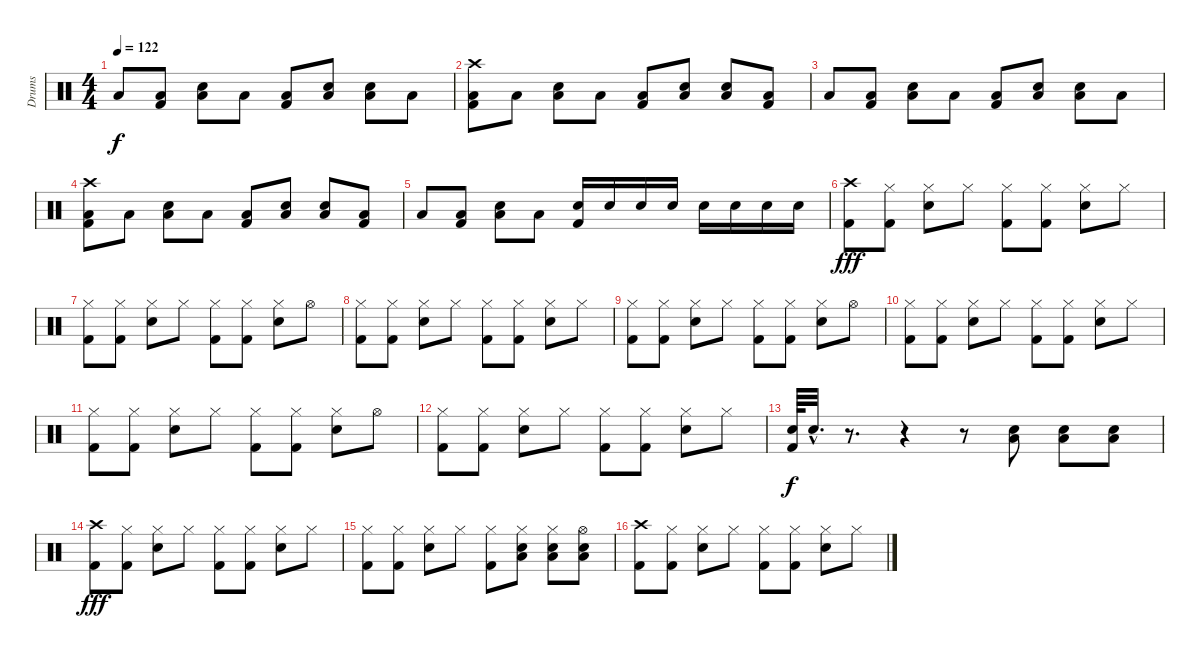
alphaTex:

\track ("Drums" "Drums") {instrument percussion}
\staff {score}
\articulation defaults
\ts (4 4)
\tempo 122
\clef neutral
\ks c "Low Floor Tom (hit)".8{dy f}
("Low Floor Tom (hit)" "Kick (hit) 2").8 ("Snare (hit) 2" "Low Floor Tom (hit)").8 "Low Floor Tom (hit)".8 ("Low Floor Tom (hit)" "Kick (hit) 2").8 ("Snare (hit) 2" "Low Floor Tom (hit)").8 ("Snare (hit) 2" "Low Floor Tom (hit)").8 "Low Floor Tom (hit)".8 |
("Crash high (hit)" "Low Floor Tom (hit)" "Kick (hit) 2").8 "Low Floor Tom (hit)".8 ("Snare (hit) 2" "Low Floor Tom (hit)").8 "Low Floor Tom (hit)".8 ("Low Floor Tom (hit)" "Kick (hit) 2").8 ("Snare (hit) 2" "Low Floor Tom (hit)").8 ("Snare (hit) 2" "Low Floor Tom (hit)").8 ("Low Floor Tom (hit)" "Kick (hit) 2").8 |
"Low Floor Tom (hit)".8 ("Low Floor Tom (hit)" "Kick (hit) 2").8 ("Snare (hit) 2" "Low Floor Tom (hit)").8 "Low Floor Tom (hit)".8 ("Low Floor Tom (hit)" "Kick (hit) 2").8 ("Snare (hit) 2" "Low Floor Tom (hit)").8 ("Snare (hit) 2" "Low Floor Tom (hit)").8 "Low Floor Tom (hit)".8 |
("Crash high (hit)" "Low Floor Tom (hit)" "Kick (hit) 2").8 "Low Floor Tom (hit)".8 ("Snare (hit) 2" "Low Floor Tom (hit)").8 "Low Floor Tom (hit)".8 ("Low Floor Tom (hit)" "Kick (hit) 2").8 ("Snare (hit) 2" "Low Floor Tom (hit)").8 ("Snare (hit) 2" "Low Floor Tom (hit)").8 ("Low Floor Tom (hit)" "Kick (hit) 2").8 |
"Low Floor Tom (hit)".8 ("Low Floor Tom (hit)" "Kick (hit) 2").8 ("Snare (hit) 2" "Low Floor Tom (hit)").8 "Low Floor Tom (hit)".8 ("Snare (hit) 2" "Kick (hit) 2").16 "Snare (hit) 2".16 "Snare (hit) 2".16 "Snare (hit) 2".16 "Snare (hit) 2".16 "Snare (hit) 2".16 "Snare (hit) 2".16 "Snare (hit) 2".16 |
("Crash high (hit)" "Kick (hit) 2").8{dy fff} ("Hi-Hat (closed)" "Kick (hit) 2").8 ("Hi-Hat (closed)" "Snare (hit) 2").8 "Hi-Hat (closed)".8 ("Hi-Hat (closed)" "Kick (hit) 2").8 ("Hi-Hat (closed)" "Kick (hit) 2").8 ("Hi-Hat (closed)" "Snare (hit) 2").8 "Hi-Hat (closed)".8 |
("Hi-Hat (closed)" "Kick (hit) 2").8 ("Hi-Hat (closed)" "Kick (hit) 2").8 ("Hi-Hat (closed)" "Snare (hit) 2").8 "Hi-Hat (closed)".8 ("Hi-Hat (closed)" "Kick (hit) 2").8 ("Hi-Hat (closed)" "Kick (hit) 2").8 ("Hi-Hat (closed)" "Snare (hit) 2").8 "Hi-Hat (open)".8 |
("Hi-Hat (closed)" "Kick (hit) 2").8 ("Hi-Hat (closed)" "Kick (hit) 2").8 ("Hi-Hat (closed)" "Snare (hit) 2").8 "Hi-Hat (closed)".8 ("Hi-Hat (closed)" "Kick (hit) 2").8 ("Hi-Hat (closed)" "Kick (hit) 2").8 ("Hi-Hat (closed)" "Snare (hit) 2").8 "Hi-Hat (closed)".8 |
("Hi-Hat (closed)" "Kick (hit) 2").8 ("Hi-Hat (closed)" "Kick (hit) 2").8 ("Hi-Hat (closed)" "Snare (hit) 2").8 "Hi-Hat (closed)".8 ("Hi-Hat (closed)" "Kick (hit) 2").8 ("Hi-Hat (closed)" "Kick (hit) 2").8 ("Hi-Hat (closed)" "Snare (hit) 2").8 "Hi-Hat (open)".8 |
("Hi-Hat (closed)" "Kick (hit) 2").8 ("Hi-Hat (closed)" "Kick (hit) 2").8 ("Hi-Hat (closed)" "Snare (hit) 2").8 "Hi-Hat (closed)".8 ("Hi-Hat (closed)" "Kick (hit) 2").8 ("Hi-Hat (closed)" "Kick (hit) 2").8 ("Hi-Hat (closed)" "Snare (hit) 2").8 "Hi-Hat (closed)".8 |
("Hi-Hat (closed)" "Kick (hit) 2").8 ("Hi-Hat (closed)" "Kick (hit) 2").8 ("Hi-Hat (closed)" "Snare (hit) 2").8 "Hi-Hat (closed)".8 ("Hi-Hat (closed)" "Kick (hit) 2").8 ("Hi-Hat (closed)" "Kick (hit) 2").8 ("Hi-Hat (closed)" "Snare (hit) 2").8 "Hi-Hat (open)".8 |
("Hi-Hat (closed)" "Kick (hit) 2").8 ("Hi-Hat (closed)" "Kick (hit) 2").8 ("Hi-Hat (closed)" "Snare (hit) 2").8 "Hi-Hat (closed)".8 ("Hi-Hat (closed)" "Kick (hit) 2").8 ("Hi-Hat (closed)" "Kick (hit) 2").8 ("Hi-Hat (closed)" "Snare (hit) 2").8 "Hi-Hat (closed)".8 |
("Snare (hit) 2" "Kick (hit) 2").64{dy f} "Snare (hit) 2"{hac}.32{d} r.8{d} r.4 r.8 ("Snare (hit) 2" "Low Floor Tom (hit)").8 ("Snare (hit) 2" "Low Floor Tom (hit)").8 ("Snare (hit) 2" "Low Floor Tom (hit)").8 |
("Crash high (hit)" "Kick (hit) 2").8{dy fff} ("Hi-Hat (closed)" "Kick (hit) 2").8 ("Hi-Hat (closed)" "Snare (hit) 2").8 "Hi-Hat (closed)".8 ("Hi-Hat (closed)" "Kick (hit) 2").8 ("Hi-Hat (closed)" "Kick (hit) 2").8 ("Hi-Hat (closed)" "Snare (hit) 2").8 "Hi-Hat (closed)".8 |
("Hi-Hat (closed)" "Kick (hit) 2").8 ("Hi-Hat (closed)" "Kick (hit) 2").8 ("Hi-Hat (closed)" "Snare (hit) 2").8 "Hi-Hat (closed)".8 ("Hi-Hat (closed)" "Kick (hit) 2").8 ("Hi-Hat (closed)" "Snare (hit) 2" "Low Floor Tom (hit)").8 ("Hi-Hat (closed)" "Snare (hit) 2" "Low Floor Tom (hit)").8 ("Hi-Hat (open)" "Snare (hit) 2" "Low Floor Tom (hit)").8 |
("Crash high (hit)" "Kick (hit) 2").8 ("Hi-Hat (closed)" "Kick (hit) 2").8 ("Hi-Hat (closed)" "Snare (hit) 2").8 "Hi-Hat (closed)".8 ("Hi-Hat (closed)" "Kick (hit) 2").8 ("Hi-Hat (closed)" "Kick (hit) 2").8 ("Hi-Hat (closed)" "Snare (hit) 2").8 "Hi-Hat (closed)".8
